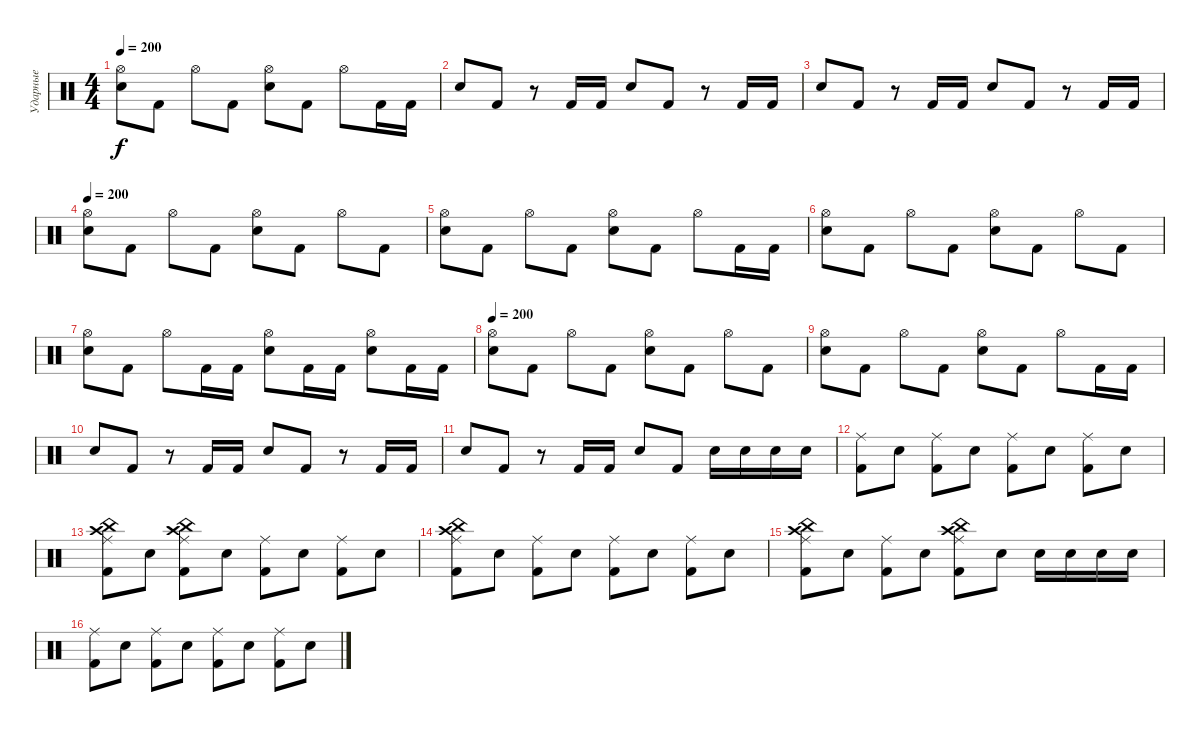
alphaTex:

\track ("Ударные" "Ударные") {instrument percussion}
\staff {score}
\articulation defaults
\ts (4 4)
\tempo 200
\clef neutral
\ks c
("Electric Snare (hit)" "Hi-Hat (open)").8{dy f} "Kick (hit) 2".8 "Hi-Hat (open)".8 "Kick (hit) 2".8 ("Electric Snare (hit)" "Hi-Hat (open)").8 "Kick (hit) 2".8 "Hi-Hat (open)".8 "Kick (hit) 2".16 "Kick (hit) 2".16 |
"Electric Snare (hit)".8 "Kick (hit) 2".8 r.8 "Kick (hit) 2".16 "Kick (hit) 2".16 "Electric Snare (hit)".8 "Kick (hit) 2".8 r.8 "Kick (hit) 2".16 "Kick (hit) 2".16 |
"Electric Snare (hit)".8 "Kick (hit) 2".8 r.8 "Kick (hit) 2".16 "Kick (hit) 2".16 "Electric Snare (hit)".8 "Kick (hit) 2".8 r.8 "Kick (hit) 2".16 "Kick (hit) 2".16 |
\tempo 200
("Hi-Hat (open)" "Electric Snare (hit)").8 "Kick (hit) 2".8 "Hi-Hat (open)".8 "Kick (hit) 2".8 ("Electric Snare (hit)" "Hi-Hat (open)").8 "Kick (hit) 2".8 "Hi-Hat (open)".8 "Kick (hit) 2".8 |
("Electric Snare (hit)" "Hi-Hat (open)").8 "Kick (hit) 2".8 "Hi-Hat (open)".8 "Kick (hit) 2".8 ("Electric Snare (hit)" "Hi-Hat (open)").8 "Kick (hit) 2".8 "Hi-Hat (open)".8 "Kick (hit) 2".16 "Kick (hit) 2".16 |
("Hi-Hat (open)" "Electric Snare (hit)").8 "Kick (hit) 2".8 "Hi-Hat (open)".8 "Kick (hit) 2".8 ("Electric Snare (hit)" "Hi-Hat (open)").8 "Kick (hit) 2".8 "Hi-Hat (open)".8 "Kick (hit) 2".8 |
("Electric Snare (hit)" "Hi-Hat (open)").8 "Kick (hit) 2".8 "Hi-Hat (open)".8 "Kick (hit) 2".16 "Kick (hit) 2".16 ("Electric Snare (hit)" "Hi-Hat (open)").8 "Kick (hit) 2".16 "Kick (hit) 2".16 ("Electric Snare (hit)" "Hi-Hat (open)").8 "Kick (hit) 2".16 "Kick (hit) 2".16 |
\tempo 200
("Hi-Hat (open)" "Electric Snare (hit)").8 "Kick (hit) 2".8 "Hi-Hat (open)".8 "Kick (hit) 2".8 ("Electric Snare (hit)" "Hi-Hat (open)").8 "Kick (hit) 2".8 "Hi-Hat (open)".8 "Kick (hit) 2".8 |
("Electric Snare (hit)" "Hi-Hat (open)").8 "Kick (hit) 2".8 "Hi-Hat (open)".8 "Kick (hit) 2".8 ("Electric Snare (hit)" "Hi-Hat (open)").8 "Kick (hit) 2".8 "Hi-Hat (open)".8 "Kick (hit) 2".16 "Kick (hit) 2".16 |
"Electric Snare (hit)".8 "Kick (hit) 2".8 r.8 "Kick (hit) 2".16 "Kick (hit) 2".16 "Electric Snare (hit)".8 "Kick (hit) 2".8 r.8 "Kick (hit) 2".16 "Kick (hit) 2".16 |
"Electric Snare (hit)".8 "Kick (hit) 2".8 r.8 "Kick (hit) 2".16 "Kick (hit) 2".16 "Electric Snare (hit)".8 "Kick (hit) 2".8 "Electric Snare (hit)".16 "Electric Snare (hit)".16 "Electric Snare (hit)".16 "Electric Snare (hit)".16 |
("Kick (hit) 2" "Ride (middle)").8 "Electric Snare (hit)".8 ("Kick (hit) 2" "Ride (middle)").8 "Electric Snare (hit)".8 ("Kick (hit) 2" "Ride (middle)").8 "Electric Snare (hit)".8 ("Kick (hit) 2" "Ride (middle)").8 "Electric Snare (hit)".8 |
("Kick (hit) 2" "Crash high (hit)" "China (hit)" "Ride (middle)").8 "Electric Snare (hit)".8 ("Kick (hit) 2" "China (hit)" "Crash high (hit)" "Ride (middle)").8 "Electric Snare (hit)".8 ("Kick (hit) 2" "Ride (middle)").8 "Electric Snare (hit)".8 ("Kick (hit) 2" "Ride (middle)").8 "Electric Snare (hit)".8 |
("Kick (hit) 2" "Crash high (hit)" "China (hit)" "Ride (middle)").8 "Electric Snare (hit)".8 ("Kick (hit) 2" "Ride (middle)").8 "Electric Snare (hit)".8 ("Kick (hit) 2" "Ride (middle)").8 "Electric Snare (hit)".8 ("Kick (hit) 2" "Ride (middle)").8 "Electric Snare (hit)".8 |
("Kick (hit) 2" "China (hit)" "Crash high (hit)" "Ride (middle)").8 "Electric Snare (hit)".8 ("Kick (hit) 2" "Ride (middle)").8 "Electric Snare (hit)".8 ("Kick (hit) 2" "Crash high (hit)" "China (hit)" "Ride (middle)").8 "Electric Snare (hit)".8 "Electric Snare (hit)".16 "Electric Snare (hit)".16 "Electric Snare (hit)".16 "Electric Snare (hit)".16 |
("Kick (hit) 2" "Ride (middle)").8 "Electric Snare (hit)".8 ("Kick (hit) 2" "Ride (middle)").8 "Electric Snare (hit)".8 ("Kick (hit) 2" "Ride (middle)").8 "Electric Snare (hit)".8 ("Kick (hit) 2" "Ride (middle)").8 "Electric Snare (hit)".8
